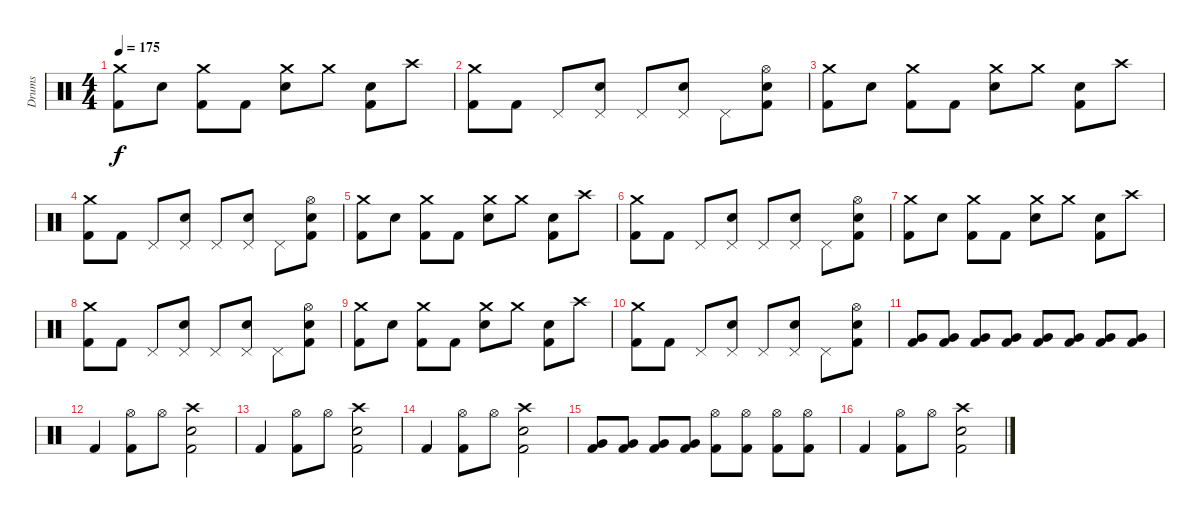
\track ("Drums" "Drums") {instrument percussion}
\staff {score}
\articulation defaults
\ts (4 4)
\tempo 175
\clef neutral
\ks c
("Crash medium (hit)" "Kick (hit) 2").8{dy f} "Snare (hit) 2".8 ("Crash medium (hit)" "Kick (hit) 2").8 "Kick (hit) 2".8 ("Crash medium (hit)" "Snare (hit) 2").8 "Crash medium (hit)".8 ("Snare (hit) 2" "Kick (hit) 2").8 "Crash high (hit)".8 |
("Crash medium (hit)" "Kick (hit) 2").8 "Kick (hit) 2".8 "Pedal Hi-Hat (hit)".8 ("Pedal Hi-Hat (hit)" "Snare (hit) 2").8 "Pedal Hi-Hat (hit)".8 ("Pedal Hi-Hat (hit)" "Snare (hit) 2").8 "Pedal Hi-Hat (hit)".8 ("Hi-Hat (open)" "Snare (hit) 2" "Kick (hit) 2").8 |
("Crash medium (hit)" "Kick (hit) 2").8 "Snare (hit) 2".8 ("Crash medium (hit)" "Kick (hit) 2").8 "Kick (hit) 2".8 ("Crash medium (hit)" "Snare (hit) 2").8 "Crash medium (hit)".8 ("Snare (hit) 2" "Kick (hit) 2").8 "Crash high (hit)".8 |
("Crash medium (hit)" "Kick (hit) 2").8 "Kick (hit) 2".8 "Pedal Hi-Hat (hit)".8 ("Pedal Hi-Hat (hit)" "Snare (hit) 2").8 "Pedal Hi-Hat (hit)".8 ("Pedal Hi-Hat (hit)" "Snare (hit) 2").8 "Pedal Hi-Hat (hit)".8 ("Hi-Hat (open)" "Snare (hit) 2" "Kick (hit) 2").8 |
("Crash medium (hit)" "Kick (hit) 2").8 "Snare (hit) 2".8 ("Crash medium (hit)" "Kick (hit) 2").8 "Kick (hit) 2".8 ("Crash medium (hit)" "Snare (hit) 2").8 "Crash medium (hit)".8 ("Snare (hit) 2" "Kick (hit) 2").8 "Crash high (hit)".8 |
("Crash medium (hit)" "Kick (hit) 2").8 "Kick (hit) 2".8 "Pedal Hi-Hat (hit)".8 ("Pedal Hi-Hat (hit)" "Snare (hit) 2").8 "Pedal Hi-Hat (hit)".8 ("Pedal Hi-Hat (hit)" "Snare (hit) 2").8 "Pedal Hi-Hat (hit)".8 ("Hi-Hat (open)" "Snare (hit) 2" "Kick (hit) 2").8 |
("Crash medium (hit)" "Kick (hit) 2").8 "Snare (hit) 2".8 ("Crash medium (hit)" "Kick (hit) 2").8 "Kick (hit) 2".8 ("Crash medium (hit)" "Snare (hit) 2").8 "Crash medium (hit)".8 ("Snare (hit) 2" "Kick (hit) 2").8 "Crash high (hit)".8 |
("Crash medium (hit)" "Kick (hit) 2").8 "Kick (hit) 2".8 "Pedal Hi-Hat (hit)".8 ("Pedal Hi-Hat (hit)" "Snare (hit) 2").8 "Pedal Hi-Hat (hit)".8 ("Pedal Hi-Hat (hit)" "Snare (hit) 2").8 "Pedal Hi-Hat (hit)".8 ("Hi-Hat (open)" "Snare (hit) 2" "Kick (hit) 2").8 |
("Crash medium (hit)" "Kick (hit) 2").8 "Snare (hit) 2".8 ("Crash medium (hit)" "Kick (hit) 2").8 "Kick (hit) 2".8 ("Crash medium (hit)" "Snare (hit) 2").8 "Crash medium (hit)".8 ("Snare (hit) 2" "Kick (hit) 2").8 "Crash high (hit)".8 |
("Crash medium (hit)" "Kick (hit) 2").8 "Kick (hit) 2".8 "Pedal Hi-Hat (hit)".8 ("Pedal Hi-Hat (hit)" "Snare (hit) 2").8 "Pedal Hi-Hat (hit)".8 ("Pedal Hi-Hat (hit)" "Snare (hit) 2").8 "Pedal Hi-Hat (hit)".8 ("Hi-Hat (open)" "Snare (hit) 2" "Kick (hit) 2").8 |
("Very Low Tom (hit)" "Kick (hit) 2").8 ("Very Low Tom (hit)" "Kick (hit) 2").8 ("Very Low Tom (hit)" "Kick (hit) 2").8 ("Very Low Tom (hit)" "Kick (hit) 2").8 ("Very Low Tom (hit)" "Kick (hit) 2").8 ("Very Low Tom (hit)" "Kick (hit) 2").8 ("Very Low Tom (hit)" "Kick (hit) 2").8 ("Very Low Tom (hit)" "Kick (hit) 2").8 |
"Kick (hit) 2".4 ("Hi-Hat (open)" "Kick (hit) 2").8 "Hi-Hat (open)".8 ("Crash high (hit)" "Snare (hit) 2" "Kick (hit) 2").2 |
"Kick (hit) 2".4 ("Hi-Hat (open)" "Kick (hit) 2").8 "Hi-Hat (open)".8 ("Crash high (hit)" "Snare (hit) 2" "Kick (hit) 2").2 |
"Kick (hit) 2".4 ("Hi-Hat (open)" "Kick (hit) 2").8 "Hi-Hat (open)".8 ("Crash high (hit)" "Snare (hit) 2" "Kick (hit) 2").2 |
("Very Low Tom (hit)" "Kick (hit) 2").8 ("Very Low Tom (hit)" "Kick (hit) 2").8 ("Very Low Tom (hit)" "Kick (hit) 2").8 ("Very Low Tom (hit)" "Kick (hit) 2").8 ("Hi-Hat (open)" "Kick (hit) 2").8 ("Hi-Hat (open)" "Kick (hit) 2").8 ("Hi-Hat (open)" "Kick (hit) 2").8 ("Hi-Hat (open)" "Kick (hit) 2").8 |
"Kick (hit) 2".4 ("Hi-Hat (open)" "Kick (hit) 2").8 "Hi-Hat (open)".8 ("Crash high (hit)" "Snare (hit) 2" "Kick (hit) 2").2
